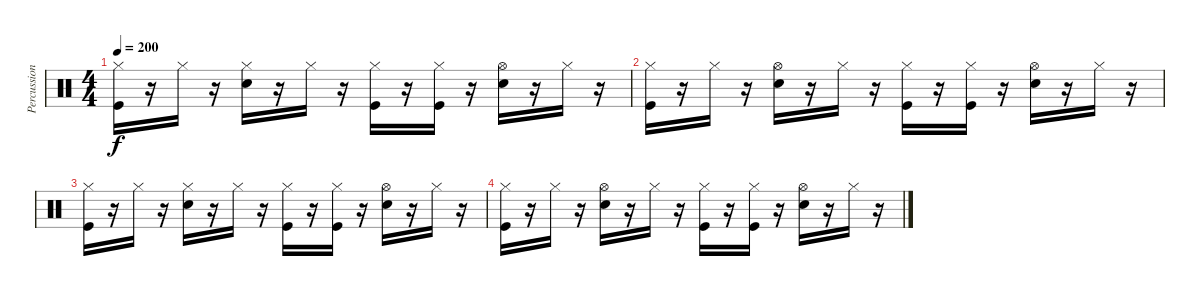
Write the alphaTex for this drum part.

\track ("Percussion" "Percussion") {instrument percussion}
\staff {score}
\articulation defaults
\ts (4 4)
\tempo 200
\clef neutral
\ks c
("Hi-Hat (closed)" "Kick (hit)").16{dy f} r.16 "Hi-Hat (closed)".16 r.16 ("Hi-Hat (closed)" "Snare (hit) 2").16 r.16 "Hi-Hat (closed)".16 r.16 ("Hi-Hat (closed)" "Kick (hit)").16 r.16 ("Kick (hit)" "Hi-Hat (closed)").16 r.16 ("Hi-Hat (open)" "Snare (hit) 2").16 r.16 "Hi-Hat (closed)".16 r.16 |
("Hi-Hat (closed)" "Kick (hit)").16 r.16 "Hi-Hat (closed)".16 r.16 ("Hi-Hat (open)" "Snare (hit) 2").16 r.16 "Hi-Hat (closed)".16 r.16 ("Hi-Hat (closed)" "Kick (hit)").16 r.16 ("Kick (hit)" "Hi-Hat (closed)").16 r.16 ("Hi-Hat (open)" "Snare (hit) 2").16 r.16 "Hi-Hat (closed)".16 r.16 |
("Hi-Hat (closed)" "Kick (hit)").16 r.16 "Hi-Hat (closed)".16 r.16 ("Hi-Hat (closed)" "Snare (hit) 2").16 r.16 "Hi-Hat (closed)".16 r.16 ("Hi-Hat (closed)" "Kick (hit)").16 r.16 ("Kick (hit)" "Hi-Hat (closed)").16 r.16 ("Hi-Hat (open)" "Snare (hit) 2").16 r.16 "Hi-Hat (closed)".16 r.16 |
("Hi-Hat (closed)" "Kick (hit)").16 r.16 "Hi-Hat (closed)".16 r.16 ("Hi-Hat (open)" "Snare (hit) 2").16 r.16 "Hi-Hat (closed)".16 r.16 ("Hi-Hat (closed)" "Kick (hit)").16 r.16 ("Kick (hit)" "Hi-Hat (closed)").16 r.16 ("Hi-Hat (open)" "Snare (hit) 2").16 r.16 "Hi-Hat (closed)".16 r.16
